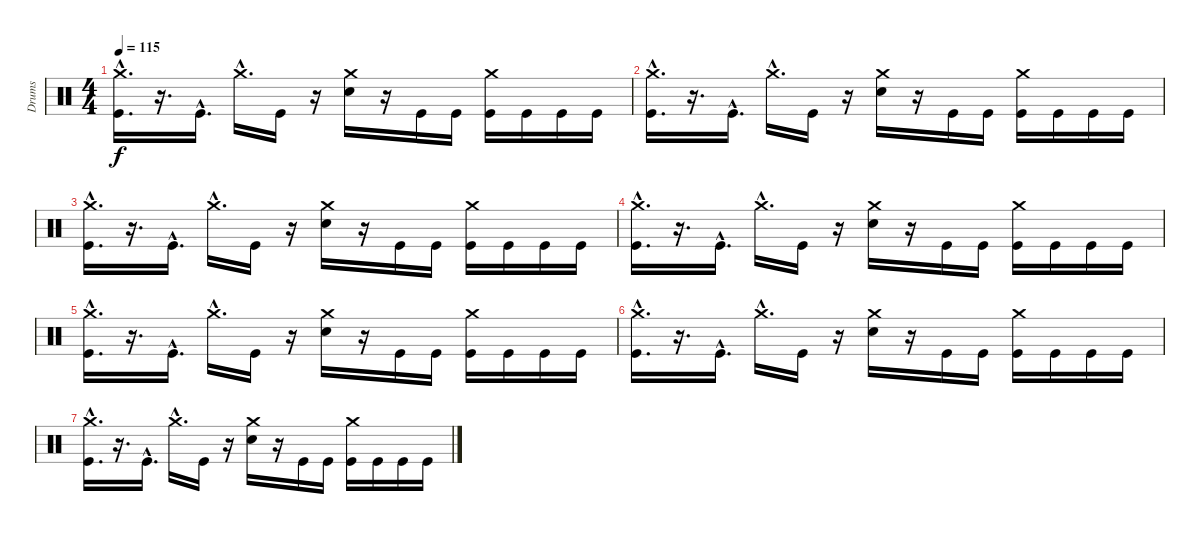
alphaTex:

\track ("Drums" "Drums") {instrument percussion}
\staff {score}
\articulation defaults
\ts (4 4)
\tempo 115
\clef neutral
\ks c
("Crash medium (hit)"{hac} "Kick (hit)"{hac}).16{d dy f} r.16{d} "Kick (hit)"{hac}.16{d} "Crash medium (hit)"{hac}.16{d} "Kick (hit)".16 r.16 ("Crash medium (hit)" "Electric Snare (hit)").16 r.16 "Kick (hit)".16 "Kick (hit)".16 ("Crash medium (hit)" "Kick (hit)").16 "Kick (hit)".16 "Kick (hit)".16 "Kick (hit)".16 |
("Crash medium (hit)"{hac} "Kick (hit)"{hac}).16{d} r.16{d} "Kick (hit)"{hac}.16{d} "Crash medium (hit)"{hac}.16{d} "Kick (hit)".16 r.16 ("Crash medium (hit)" "Electric Snare (hit)").16 r.16 "Kick (hit)".16 "Kick (hit)".16 ("Crash medium (hit)" "Kick (hit)").16 "Kick (hit)".16 "Kick (hit)".16 "Kick (hit)".16 |
("Crash medium (hit)"{hac} "Kick (hit)"{hac}).16{d} r.16{d} "Kick (hit)"{hac}.16{d} "Crash medium (hit)"{hac}.16{d} "Kick (hit)".16 r.16 ("Crash medium (hit)" "Electric Snare (hit)").16 r.16 "Kick (hit)".16 "Kick (hit)".16 ("Crash medium (hit)" "Kick (hit)").16 "Kick (hit)".16 "Kick (hit)".16 "Kick (hit)".16 |
("Crash medium (hit)"{hac} "Kick (hit)"{hac}).16{d} r.16{d} "Kick (hit)"{hac}.16{d} "Crash medium (hit)"{hac}.16{d} "Kick (hit)".16 r.16 ("Crash medium (hit)" "Electric Snare (hit)").16 r.16 "Kick (hit)".16 "Kick (hit)".16 ("Crash medium (hit)" "Kick (hit)").16 "Kick (hit)".16 "Kick (hit)".16 "Kick (hit)".16 |
("Crash medium (hit)"{hac} "Kick (hit)"{hac}).16{d} r.16{d} "Kick (hit)"{hac}.16{d} "Crash medium (hit)"{hac}.16{d} "Kick (hit)".16 r.16 ("Crash medium (hit)" "Electric Snare (hit)").16 r.16 "Kick (hit)".16 "Kick (hit)".16 ("Crash medium (hit)" "Kick (hit)").16 "Kick (hit)".16 "Kick (hit)".16 "Kick (hit)".16 |
("Crash medium (hit)"{hac} "Kick (hit)"{hac}).16{d} r.16{d} "Kick (hit)"{hac}.16{d} "Crash medium (hit)"{hac}.16{d} "Kick (hit)".16 r.16 ("Crash medium (hit)" "Electric Snare (hit)").16 r.16 "Kick (hit)".16 "Kick (hit)".16 ("Crash medium (hit)" "Kick (hit)").16 "Kick (hit)".16 "Kick (hit)".16 "Kick (hit)".16 |
("Crash medium (hit)"{hac} "Kick (hit)"{hac}).16{d} r.16{d} "Kick (hit)"{hac}.16{d} "Crash medium (hit)"{hac}.16{d} "Kick (hit)".16 r.16 ("Crash medium (hit)" "Electric Snare (hit)").16 r.16 "Kick (hit)".16 "Kick (hit)".16 ("Crash medium (hit)" "Kick (hit)").16 "Kick (hit)".16 "Kick (hit)".16 "Kick (hit)".16
